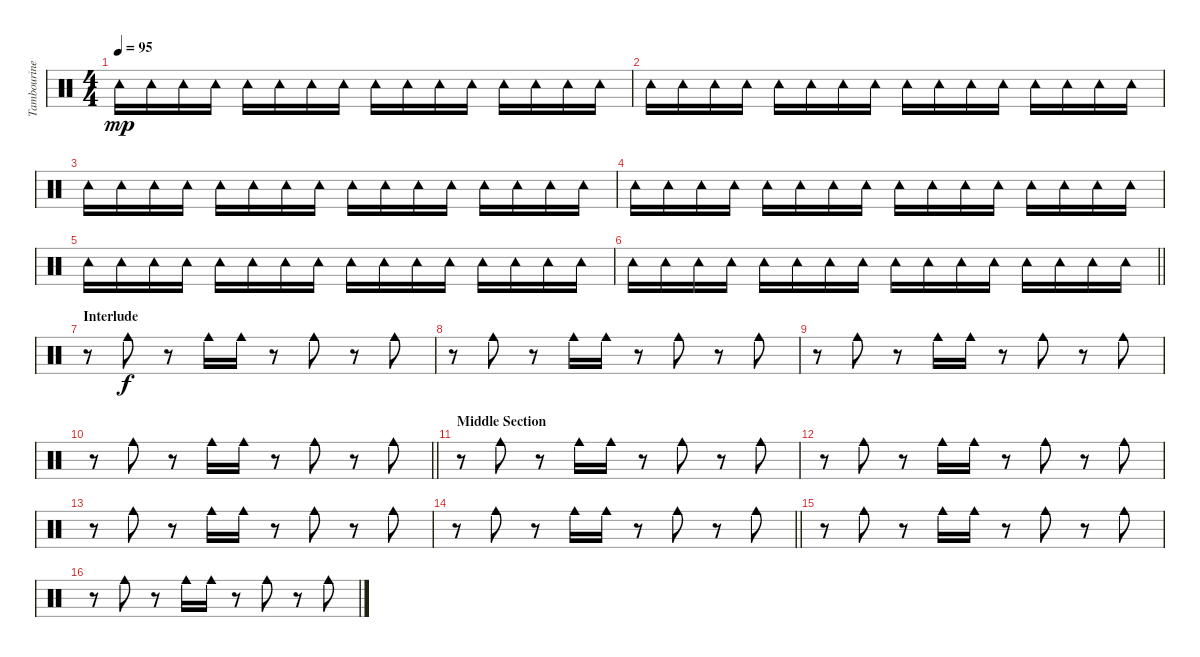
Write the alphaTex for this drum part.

\track ("Tambourine" "Tambourine") {instrument percussion}
\staff {score}
\articulation defaults
\ts (4 4)
\tempo 95
\clef neutral
\ks c "Tambourine (hit)".16{dy mp} "Tambourine (hit)".16 "Tambourine (hit)".16 "Tambourine (hit)".16 "Tambourine (hit)".16 "Tambourine (hit)".16 "Tambourine (hit)".16 "Tambourine (hit)".16 "Tambourine (hit)".16 "Tambourine (hit)".16 "Tambourine (hit)".16 "Tambourine (hit)".16 "Tambourine (hit)".16 "Tambourine (hit)".16 "Tambourine (hit)".16 "Tambourine (hit)".16
|
"Tambourine (hit)".16 "Tambourine (hit)".16 "Tambourine (hit)".16 "Tambourine (hit)".16 "Tambourine (hit)".16 "Tambourine (hit)".16 "Tambourine (hit)".16 "Tambourine (hit)".16 "Tambourine (hit)".16 "Tambourine (hit)".16 "Tambourine (hit)".16 "Tambourine (hit)".16 "Tambourine (hit)".16 "Tambourine (hit)".16 "Tambourine (hit)".16 "Tambourine (hit)".16 |
"Tambourine (hit)".16 "Tambourine (hit)".16 "Tambourine (hit)".16 "Tambourine (hit)".16 "Tambourine (hit)".16 "Tambourine (hit)".16 "Tambourine (hit)".16 "Tambourine (hit)".16 "Tambourine (hit)".16 "Tambourine (hit)".16 "Tambourine (hit)".16 "Tambourine (hit)".16 "Tambourine (hit)".16 "Tambourine (hit)".16 "Tambourine (hit)".16 "Tambourine (hit)".16 |
"Tambourine (hit)".16 "Tambourine (hit)".16 "Tambourine (hit)".16 "Tambourine (hit)".16 "Tambourine (hit)".16 "Tambourine (hit)".16 "Tambourine (hit)".16 "Tambourine (hit)".16 "Tambourine (hit)".16 "Tambourine (hit)".16 "Tambourine (hit)".16 "Tambourine (hit)".16 "Tambourine (hit)".16 "Tambourine (hit)".16 "Tambourine (hit)".16 "Tambourine (hit)".16 |
"Tambourine (hit)".16 "Tambourine (hit)".16 "Tambourine (hit)".16 "Tambourine (hit)".16 "Tambourine (hit)".16 "Tambourine (hit)".16 "Tambourine (hit)".16 "Tambourine (hit)".16 "Tambourine (hit)".16 "Tambourine (hit)".16 "Tambourine (hit)".16 "Tambourine (hit)".16 "Tambourine (hit)".16 "Tambourine (hit)".16 "Tambourine (hit)".16 "Tambourine (hit)".16 |
\barLineRight lightlight "Tambourine (hit)".16 "Tambourine (hit)".16 "Tambourine (hit)".16 "Tambourine (hit)".16 "Tambourine (hit)".16 "Tambourine (hit)".16 "Tambourine (hit)".16 "Tambourine (hit)".16 "Tambourine (hit)".16 "Tambourine (hit)".16 "Tambourine (hit)".16 "Tambourine (hit)".16 "Tambourine (hit)".16 "Tambourine (hit)".16 "Tambourine (hit)".16 "Tambourine (hit)".16
|
\section ("" "Interlude")
r.8 "Cowbell medium (hit)".8{dy f} r.8 "Cowbell medium (hit)".16 "Cowbell medium (hit)".16 r.8 "Cowbell medium (hit)".8 r.8 "Cowbell medium (hit)".8 |
r.8 "Cowbell medium (hit)".8 r.8 "Cowbell medium (hit)".16 "Cowbell medium (hit)".16 r.8 "Cowbell medium (hit)".8 r.8 "Cowbell medium (hit)".8 |
r.8 "Cowbell medium (hit)".8 r.8 "Cowbell medium (hit)".16 "Cowbell medium (hit)".16 r.8 "Cowbell medium (hit)".8 r.8 "Cowbell medium (hit)".8 |
\barLineRight lightlight
r.8 "Cowbell medium (hit)".8 r.8 "Cowbell medium (hit)".16 "Cowbell medium (hit)".16 r.8 "Cowbell medium (hit)".8 r.8 "Cowbell medium (hit)".8 |
\section ("" "Middle Section")
r.8 "Cowbell medium (hit)".8 r.8 "Cowbell medium (hit)".16 "Cowbell medium (hit)".16 r.8 "Cowbell medium (hit)".8 r.8 "Cowbell medium (hit)".8 |
r.8 "Cowbell medium (hit)".8 r.8 "Cowbell medium (hit)".16 "Cowbell medium (hit)".16 r.8 "Cowbell medium (hit)".8 r.8 "Cowbell medium (hit)".8 |
r.8 "Cowbell medium (hit)".8 r.8 "Cowbell medium (hit)".16 "Cowbell medium (hit)".16 r.8 "Cowbell medium (hit)".8 r.8 "Cowbell medium (hit)".8 |
\barLineRight lightlight
r.8 "Cowbell medium (hit)".8 r.8 "Cowbell medium (hit)".16 "Cowbell medium (hit)".16 r.8 "Cowbell medium (hit)".8 r.8 "Cowbell medium (hit)".8 |
r.8 "Cowbell medium (hit)".8 r.8 "Cowbell medium (hit)".16 "Cowbell medium (hit)".16 r.8 "Cowbell medium (hit)".8 r.8 "Cowbell medium (hit)".8 |
r.8 "Cowbell medium (hit)".8 r.8 "Cowbell medium (hit)".16 "Cowbell medium (hit)".16 r.8 "Cowbell medium (hit)".8 r.8 "Cowbell medium (hit)".8
